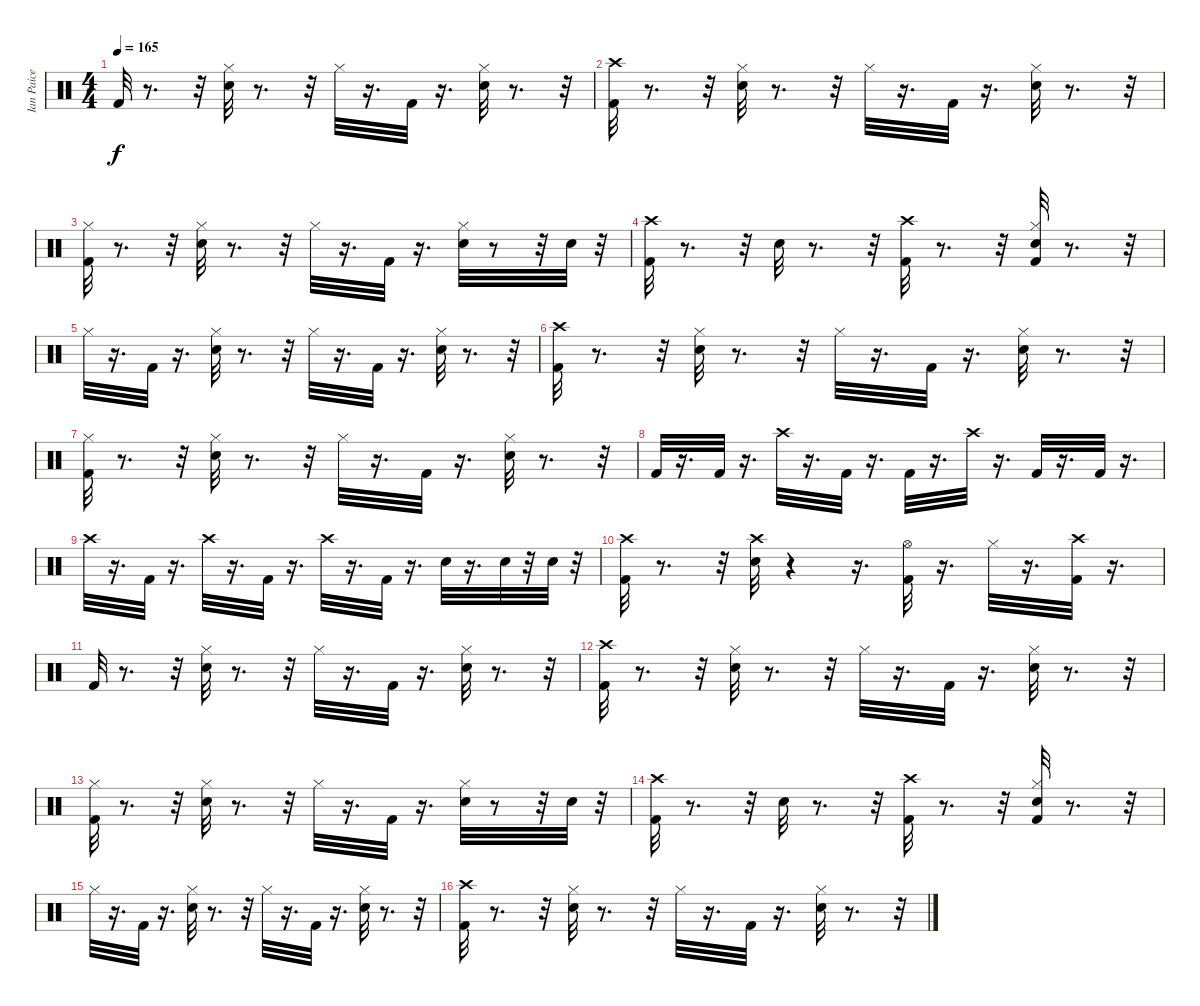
\track ("Ian Paice" "Ian Paice") {instrument percussion}
\staff {score}
\articulation defaults
\ts (4 4)
\tempo 165
\clef neutral
\ks c "Kick (hit) 2".32{dy f}
r.8{d} r.32 ("Hi-Hat (closed)" "Snare (hit) 2").32 r.8{d} r.32 "Hi-Hat (closed)".32 r.16{d} "Kick (hit) 2".32 r.16{d} ("Hi-Hat (closed)" "Snare (hit) 2").32 r.8{d} r.32 |
("Crash high (hit)" "Kick (hit) 2").32 r.8{d} r.32 ("Hi-Hat (closed)" "Snare (hit) 2").32 r.8{d} r.32 "Hi-Hat (closed)".32 r.16{d} "Kick (hit) 2".32 r.16{d} ("Hi-Hat (closed)" "Snare (hit) 2").32 r.8{d} r.32 |
("Kick (hit) 2" "Hi-Hat (closed)").32 r.8{d} r.32 ("Snare (hit) 2" "Hi-Hat (closed)").32 r.8{d} r.32 "Hi-Hat (closed)".32 r.16{d} "Kick (hit) 2".32 r.16{d} ("Snare (hit) 2" "Hi-Hat (closed)").32 r.8 r.32 "Snare (hit) 2".32 r.32 |
("Crash high (hit)" "Kick (hit) 2").32 r.8{d} r.32 "Snare (hit) 2".32 r.8{d} r.32 ("Kick (hit) 2" "Crash high (hit)").32 r.8{d} r.32 ("Hi-Hat (closed)" "Snare (hit) 2" "Kick (hit) 2").32 r.8{d} r.32 |
"Hi-Hat (closed)".32 r.16{d} "Kick (hit) 2".32 r.16{d} ("Snare (hit) 2" "Hi-Hat (closed)").32 r.8{d} r.32 "Hi-Hat (closed)".32 r.16{d} "Kick (hit) 2".32 r.16{d} ("Snare (hit) 2" "Hi-Hat (closed)").32 r.8{d} r.32 |
("Kick (hit) 2" "Crash high (hit)").32 r.8{d} r.32 ("Hi-Hat (closed)" "Snare (hit) 2").32 r.8{d} r.32 "Hi-Hat (closed)".32 r.16{d} "Kick (hit) 2".32 r.16{d} ("Hi-Hat (closed)" "Snare (hit) 2").32 r.8{d} r.32 |
("Hi-Hat (closed)" "Kick (hit) 2").32 r.8{d} r.32 ("Hi-Hat (closed)" "Snare (hit) 2").32 r.8{d} r.32 "Hi-Hat (closed)".32 r.16{d} "Kick (hit) 2".32 r.16{d} ("Hi-Hat (closed)" "Snare (hit) 2").32 r.8{d} r.32 |
"Kick (hit) 2".32 r.16{d} "Kick (hit) 2".32 r.16{d} "Crash high (hit)".32 r.16{d} "Kick (hit) 2".32 r.16{d} "Kick (hit) 2".32 r.16{d} "Crash high (hit)".32 r.16{d} "Kick (hit) 2".32 r.16{d} "Kick (hit) 2".32 r.16{d} |
"Crash high (hit)".32 r.16{d} "Kick (hit) 2".32 r.16{d} "Crash high (hit)".32 r.16{d} "Kick (hit) 2".32 r.16{d} "Crash high (hit)".32 r.16{d} "Kick (hit) 2".32 r.16{d} "Snare (hit) 2".32 r.16{d} "Snare (hit) 2".32 r.32 "Snare (hit) 2".32 r.32 |
("Crash high (hit)" "Kick (hit) 2").32 r.8{d} r.32 ("Snare (hit) 2" "Crash high (hit)").32 r.4 r.16{d} ("Hi-Hat (open)" "Kick (hit) 2").32 r.16{d} "Hi-Hat (closed)".32 r.16{d} ("Crash high (hit)" "Kick (hit) 2").32 r.16{d} |
"Kick (hit) 2".32 r.8{d} r.32 ("Hi-Hat (closed)" "Snare (hit) 2").32 r.8{d} r.32 "Hi-Hat (closed)".32 r.16{d} "Kick (hit) 2".32 r.16{d} ("Hi-Hat (closed)" "Snare (hit) 2").32 r.8{d} r.32 |
("Crash high (hit)" "Kick (hit) 2").32 r.8{d} r.32 ("Hi-Hat (closed)" "Snare (hit) 2").32 r.8{d} r.32 "Hi-Hat (closed)".32 r.16{d} "Kick (hit) 2".32 r.16{d} ("Hi-Hat (closed)" "Snare (hit) 2").32 r.8{d} r.32 |
("Kick (hit) 2" "Hi-Hat (closed)").32 r.8{d} r.32 ("Snare (hit) 2" "Hi-Hat (closed)").32 r.8{d} r.32 "Hi-Hat (closed)".32 r.16{d} "Kick (hit) 2".32 r.16{d} ("Snare (hit) 2" "Hi-Hat (closed)").32 r.8 r.32 "Snare (hit) 2".32 r.32 |
("Crash high (hit)" "Kick (hit) 2").32 r.8{d} r.32 "Snare (hit) 2".32 r.8{d} r.32 ("Kick (hit) 2" "Crash high (hit)").32 r.8{d} r.32 ("Hi-Hat (closed)" "Snare (hit) 2" "Kick (hit) 2").32 r.8{d} r.32 |
"Hi-Hat (closed)".32 r.16{d} "Kick (hit) 2".32 r.16{d} ("Snare (hit) 2" "Hi-Hat (closed)").32 r.8{d} r.32 "Hi-Hat (closed)".32 r.16{d} "Kick (hit) 2".32 r.16{d} ("Snare (hit) 2" "Hi-Hat (closed)").32 r.8{d} r.32 |
("Kick (hit) 2" "Crash high (hit)").32 r.8{d} r.32 ("Hi-Hat (closed)" "Snare (hit) 2").32 r.8{d} r.32 "Hi-Hat (closed)".32 r.16{d} "Kick (hit) 2".32 r.16{d} ("Hi-Hat (closed)" "Snare (hit) 2").32 r.8{d} r.32
